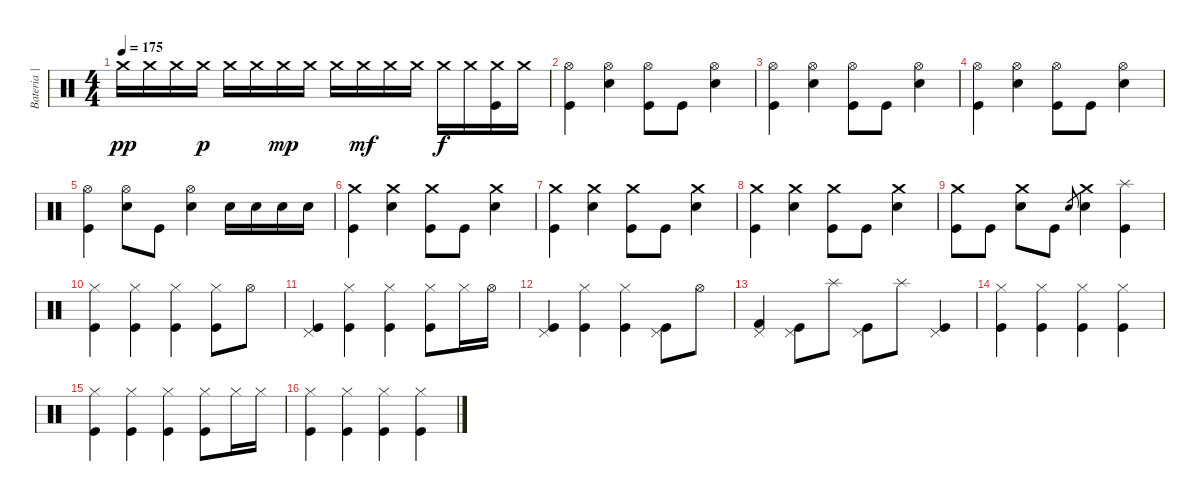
\track ("Bateria | Fabinho" "Bateria | ") {instrument percussion}
\staff {score}
\articulation defaults
\ts (4 4)
\tempo 175
\clef neutral
\ks c "Crash medium (hit)".16{dy pp} "Crash medium (hit)".16 "Crash medium (hit)".16 "Crash medium (hit)".16{dy p} "Crash medium (hit)".16 "Crash medium (hit)".16 "Crash medium (hit)".16{dy mp} "Crash medium (hit)".16 "Crash medium (hit)".16 "Crash medium (hit)".16{dy mf} "Crash medium (hit)".16 "Crash medium (hit)".16 "Crash medium (hit)".16{dy f} "Crash medium (hit)".16
("Crash medium (hit)" "Kick (hit)").16 "Crash medium (hit)".16 |
("Hi-Hat (open)" "Kick (hit)").4 ("Hi-Hat (open)" "Snare (hit) 2").4 ("Hi-Hat (open)" "Kick (hit)").8 "Kick (hit)".8 ("Hi-Hat (open)" "Snare (hit) 2").4 |
("Hi-Hat (open)" "Kick (hit)").4 ("Hi-Hat (open)" "Snare (hit) 2").4 ("Hi-Hat (open)" "Kick (hit)").8 "Kick (hit)".8 ("Hi-Hat (open)" "Snare (hit) 2").4 |
("Hi-Hat (open)" "Kick (hit)").4 ("Hi-Hat (open)" "Snare (hit) 2").4 ("Hi-Hat (open)" "Kick (hit)").8 "Kick (hit)".8 ("Hi-Hat (open)" "Snare (hit) 2").4 |
("Hi-Hat (open)" "Kick (hit)").4 ("Hi-Hat (open)" "Snare (hit) 2").8 "Kick (hit)".8 ("Hi-Hat (open)" "Snare (hit) 2").4 "Snare (hit) 2".16 "Snare (hit) 2".16 "Snare (hit) 2".16 "Snare (hit) 2".16 |
("Crash medium (hit)" "Kick (hit)").4 ("Crash medium (hit)" "Snare (hit) 2").4 ("Crash medium (hit)" "Kick (hit)").8 "Kick (hit)".8 ("Crash medium (hit)" "Snare (hit) 2").4 |
("Crash medium (hit)" "Kick (hit)").4 ("Crash medium (hit)" "Snare (hit) 2").4 ("Crash medium (hit)" "Kick (hit)").8 "Kick (hit)".8 ("Crash medium (hit)" "Snare (hit) 2").4 |
("Crash medium (hit)" "Kick (hit)").4 ("Crash medium (hit)" "Snare (hit) 2").4 ("Crash medium (hit)" "Kick (hit)").8 "Kick (hit)".8 ("Crash medium (hit)" "Snare (hit) 2").4 |
("Crash medium (hit)" "Kick (hit)").8 "Kick (hit)".8 ("Crash medium (hit)" "Snare (hit) 2").8 "Kick (hit)".8 "Snare (hit) 2".8{gr} ("Crash medium (hit)" "Snare (hit) 2").4 ("Splash (hit)" "Kick (hit)").4 |
("Hi-Hat (closed)" "Kick (hit)").4 ("Hi-Hat (closed)" "Kick (hit)").4 ("Hi-Hat (closed)" "Kick (hit)").4 ("Hi-Hat (closed)" "Kick (hit)").8 "Hi-Hat (open)".8 |
("Pedal Hi-Hat (hit)" "Kick (hit)").4 ("Hi-Hat (closed)" "Kick (hit)").4 ("Hi-Hat (closed)" "Kick (hit)").4 ("Hi-Hat (closed)" "Kick (hit)").8 "Hi-Hat (closed)".16 "Hi-Hat (open)".16 |
("Pedal Hi-Hat (hit)" "Kick (hit)").4 ("Hi-Hat (closed)" "Kick (hit)").4 ("Hi-Hat (closed)" "Kick (hit)").4 ("Pedal Hi-Hat (hit)" "Kick (hit)").8 "Hi-Hat (open)".8 |
("Pedal Hi-Hat (hit)" "Kick (hit) 2").4 ("Pedal Hi-Hat (hit)" "Kick (hit)").8 "Splash (hit)".8 ("Pedal Hi-Hat (hit)" "Kick (hit)").8 "Splash (hit)".8 ("Pedal Hi-Hat (hit)" "Kick (hit)").4 |
("Hi-Hat (closed)" "Kick (hit)").4 ("Hi-Hat (closed)" "Kick (hit)").4 ("Hi-Hat (closed)" "Kick (hit)").4 ("Hi-Hat (closed)" "Kick (hit)").4 |
("Hi-Hat (closed)" "Kick (hit)").4 ("Hi-Hat (closed)" "Kick (hit)").4 ("Hi-Hat (closed)" "Kick (hit)").4 ("Hi-Hat (closed)" "Kick (hit)").8 "Hi-Hat (closed)".16 "Hi-Hat (closed)".16 |
("Hi-Hat (closed)" "Kick (hit)").4 ("Hi-Hat (closed)" "Kick (hit)").4 ("Hi-Hat (closed)" "Kick (hit)").4 ("Hi-Hat (closed)" "Kick (hit)").4
